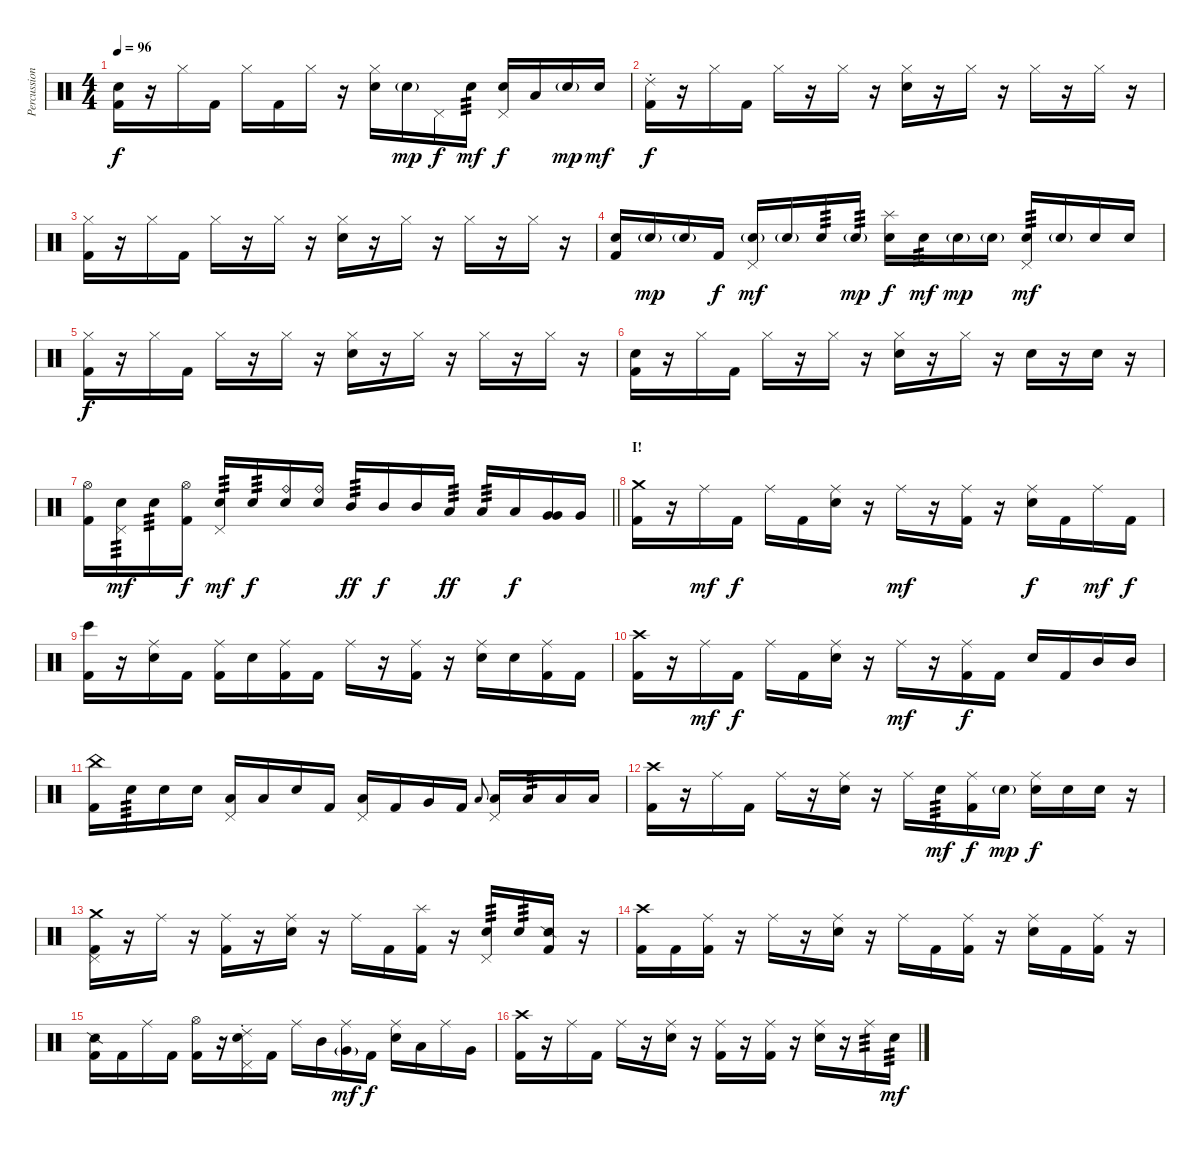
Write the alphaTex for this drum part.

\track ("Percussion" "Percussion") {instrument percussion}
\staff {score}
\articulation defaults
\ts (4 4)
\tempo 96
\clef neutral
\ks c
("Snare (hit)" "Kick (hit) 2").16{dy f} r.16 "Hi-Hat (closed)".16 "Kick (hit) 2".16 "Hi-Hat (closed)".16 "Kick (hit) 2".16 "Hi-Hat (closed)".16 r.16 ("Hi-Hat (closed)" "Snare (hit) 2").16 "Snare (hit) 2"{g}.16{dy mp} "Pedal Hi-Hat (hit)".16{dy f} "Snare (hit) 2".16{tp 3 dy mf} ("Pedal Hi-Hat (hit)" "Snare (hit) 2").16{dy f} "Low Tom (hit)".16 "Snare (hit) 2"{g}.16{dy mp} "Snare (hit) 2".16{dy mf} |
("Ride (choke) 2" "Kick (hit) 2").16{dy f} r.16 "Hi-Hat (closed)".16 "Kick (hit) 2".16 "Hi-Hat (closed)".16 r.16 "Hi-Hat (closed)".16 r.16 ("Hi-Hat (closed)" "Snare (hit) 2").16 r.16 "Hi-Hat (closed)".16 r.16 "Hi-Hat (closed)".16 r.16 "Hi-Hat (closed)".16 r.16 |
("Hi-Hat (closed)" "Kick (hit) 2").16 r.16 "Hi-Hat (closed)".16 "Kick (hit) 2".16 "Hi-Hat (closed)".16 r.16 "Hi-Hat (closed)".16 r.16 ("Hi-Hat (closed)" "Snare (hit) 2").16 r.16 "Hi-Hat (closed)".16 r.16 "Hi-Hat (closed)".16 r.16 "Hi-Hat (closed)".16 r.16 |
("Snare (hit)" "Kick (hit) 2").16 "Snare (hit) 2"{g}.16{dy mp} "Snare (hit) 2"{g}.16 "Kick (hit) 2".16{dy f} ("Pedal Hi-Hat (hit)" "Snare (hit) 2"{g}).16{dy mf} "Snare (hit) 2"{g}.16 "Snare (hit) 2".16{tp 3} "Snare (hit) 2"{g}.16{tp 3 dy mp} ("Splash (hit)" "Snare (hit) 2").16{dy f} "Snare (hit) 2".16{tp 3 dy mf} "Snare (hit) 2"{g}.16{dy mp} "Snare (hit) 2"{g}.16 ("Pedal Hi-Hat (hit)" "Snare (hit) 2").16{tp 3 dy mf} "Snare (hit) 2"{g}.16 "Snare (hit) 2".16 "Snare (hit) 2".16 |
("Hi-Hat (closed)" "Kick (hit) 2").16{dy f} r.16 "Hi-Hat (closed)".16 "Kick (hit) 2".16 "Hi-Hat (closed)".16 r.16 "Hi-Hat (closed)".16 r.16 ("Hi-Hat (closed)" "Snare (hit) 2").16 r.16 "Hi-Hat (closed)".16 r.16 "Hi-Hat (closed)".16 r.16 "Hi-Hat (closed)".16 r.16 |
("Snare (hit)" "Kick (hit) 2").16 r.16 "Hi-Hat (closed)".16 "Kick (hit) 2".16 "Hi-Hat (closed)".16 r.16 "Hi-Hat (closed)".16 r.16 ("Hi-Hat (closed)" "Snare (hit) 2").16 r.16 "Hi-Hat (closed)".16 r.16 "Snare (hit)".16 r.16 "Snare (hit)".16 r.16 |
\barLineRight lightlight
("Hi-Hat (open)" "Kick (hit) 2").16 ("Pedal Hi-Hat (hit)" "Snare (hit) 2").16{tp 3 dy mf} "Snare (hit) 2".16{tp 3} ("Hi-Hat (open)" "Kick (hit) 2").16{dy f} ("Pedal Hi-Hat (hit)" "Snare (hit) 2").16{tp 3 dy mf} "Snare (hit) 2".16{tp 3 dy f} ("Ride (bell)" "Snare (hit) 2").16 ("Ride (bell)" "Snare (hit) 2").16 "Mid Tom (hit)".16{tp 3 dy ff} "Mid Tom (hit)".16{dy f} "Mid Tom (hit)".16 "Low Tom (hit)".16{tp 3 dy ff} "Low Tom (hit)".16{tp 3} "Low Tom (hit)".16{dy f} ("Very Low Tom (hit)" "Very Low Tom (hit)").16{bu 60} "Very Low Tom (hit)".16 |
\section ("" "I!")
("Crash medium (hit)" "Kick (hit) 2").16 r.16 "Ride (middle)".16{dy mf} "Kick (hit) 2".16{dy f} "Ride (middle)".16 "Kick (hit) 2".16 ("Ride (middle)" "Snare (hit) 2").16 r.16 "Ride (middle)".16{dy mf} r.16 ("Ride (middle)" "Kick (hit) 2").16 r.16 ("Ride (middle)" "Snare (hit) 2").16{dy f} "Kick (hit) 2".16 "Ride (middle)".16{dy mf} "Kick (hit) 2".16{dy f} |
("Bongo High (hit)" "Kick (hit) 2").16 r.16 ("Ride (middle)" "Snare (hit) 2").16 "Kick (hit) 2".16 ("Ride (middle)" "Kick (hit) 2").16 "Snare (hit) 2".16 ("Ride (middle)" "Kick (hit) 2").16 "Kick (hit) 2".16 "Ride (middle)".16 r.16 ("Ride (middle)" "Kick (hit) 2").16 r.16 ("Ride (middle)" "Snare (hit) 2").16 "Snare (hit) 2".16 ("Ride (middle)" "Kick (hit) 2").16 "Kick (hit) 2".16 |
("Crash high (hit)" "Kick (hit) 2").16 r.16 "Ride (middle)".16{dy mf} "Kick (hit) 2".16{dy f} "Ride (middle)".16 "Kick (hit) 2".16 ("Ride (middle)" "Snare (hit) 2").16 r.16 "Ride (middle)".16{dy mf} r.16 ("Ride (middle)" "Kick (hit) 2").16{dy f} "Kick (hit) 2".16 "Snare (hit) 2".16 "Kick (hit) 2".16 "Mid Tom (hit)".16 "Mid Tom (hit)".16 |
("China (hit)" "Kick (hit) 2").16 "Snare (hit) 2".16{tp 3} "Snare (hit) 2".16 "Snare (hit) 2".16 ("Pedal Hi-Hat (hit)" "Low Tom (hit)").16 "Low Tom (hit)".16 "Snare (hit) 2".16 "Kick (hit) 2".16 ("Pedal Hi-Hat (hit)" "Low Tom (hit)").16 "Kick (hit) 2".16 "Very Low Tom (hit)".16 "Kick (hit) 2".16 "Low Floor Tom (hit)".8{gr onbeat} ("Pedal Hi-Hat (hit)" "Low Floor Tom (hit)").16 "Low Floor Tom (hit)".16{tp 3} "Low Floor Tom (hit)".16 "Low Floor Tom (hit)".16 |
("Crash high (hit)" "Kick (hit) 2").16 r.16 "Ride (middle)".16 "Kick (hit) 2".16 "Ride (middle)".16 r.16 ("Ride (middle)" "Snare (hit) 2").16 r.16 "Ride (middle)".16 "Snare (hit) 2".16{tp 3 dy mf} ("Ride (middle)" "Kick (hit) 2").16{dy f} "Snare (hit) 2"{g}.16{dy mp} ("Ride (middle)" "Snare (hit) 2").16{dy f} "Snare (hit) 2".16 "Snare (hit)".16 r.16 |
("Crash medium (hit)" "Pedal Hi-Hat (hit)" "Kick (hit) 2").16 r.16 "Ride (middle)".16 r.16 ("Ride (middle)" "Kick (hit) 2").16 r.16 ("Ride (middle)" "Snare (hit) 2").16 r.16 "Ride (middle)".16 "Kick (hit) 2".16 ("Splash (hit)" "Kick (hit) 2").16 r.16 ("Pedal Hi-Hat (hit)" "Snare (hit) 2").16{tp 3} "Snare (hit) 2".16{tp 3} ("Snare (side stick) 2" "Kick (hit) 2").16 r.16 |
("Crash high (hit)" "Kick (hit) 2").16 "Kick (hit) 2".16 ("Ride (middle)" "Kick (hit) 2").16 r.16 "Ride (middle)".16 r.16 ("Ride (middle)" "Snare (hit) 2").16 r.16 "Ride (middle)".16 "Kick (hit) 2".16 ("Ride (middle)" "Kick (hit) 2").16 r.16 ("Ride (middle)" "Snare (hit) 2").16 "Kick (hit) 2".16 ("Ride (middle)" "Kick (hit) 2").16 r.16 |
("Snare (side stick) 2" "Kick (hit) 2").16 "Kick (hit) 2".16 "Ride (middle)".16 "Kick (hit) 2".16 ("Hi-Hat (open)" "Kick (hit) 2").16 r.16 ("Ride (choke) 2" "Pedal Hi-Hat (hit)" "Snare (hit) 2").16 "Kick (hit) 2".16 "Ride (middle)".16 "Mid Tom (hit)".16 ("Ride (middle)" "Very Low Tom (hit)"{g}).16{dy mf} "Kick (hit) 2".16{dy f} ("Ride (middle)" "Snare (hit) 2").16 "Low Tom (hit)".16 "Ride (middle)".16 "Very Low Tom (hit)".16 |
("Crash high (hit)" "Kick (hit) 2").16 r.16 "Ride (middle)".16 "Kick (hit) 2".16 "Ride (middle)".16 r.16 ("Ride (middle)" "Snare (hit) 2").16 r.16 ("Ride (middle)" "Kick (hit) 2").16 r.16 ("Ride (middle)" "Kick (hit) 2").16 r.16 ("Ride (middle)" "Snare (hit) 2").16 r.16 "Ride (middle)".16{tp 3} "Snare (hit) 2".16{tp 3 dy mf}
